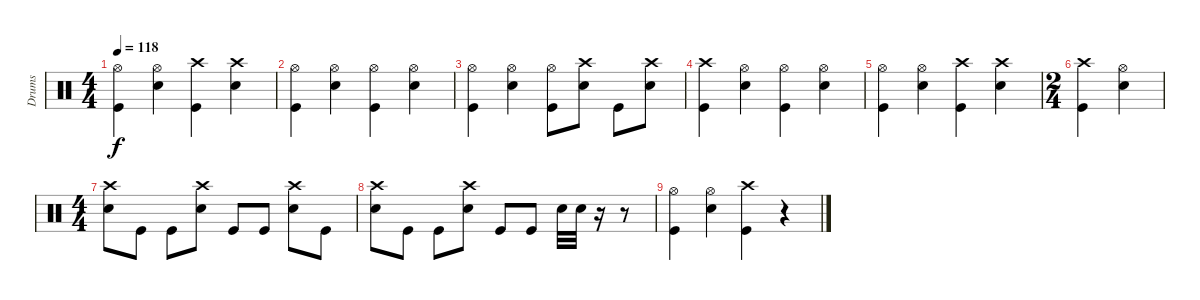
\track ("Drums" "Drums") {instrument percussion}
\staff {score}
\articulation defaults
\ts (4 4)
\tempo 118
\clef neutral
\ks c
("Hi-Hat (open)" "Kick (hit)").4{dy f} ("Hi-Hat (open)" "Snare (hit) 2").4 ("Kick (hit)" "Crash high (hit)").4 ("Snare (hit) 2" "Crash high (hit)").4 |
("Hi-Hat (open)" "Kick (hit)").4 ("Hi-Hat (open)" "Snare (hit) 2").4 ("Hi-Hat (open)" "Kick (hit)").4 ("Hi-Hat (open)" "Snare (hit) 2").4 |
("Hi-Hat (open)" "Kick (hit)").4 ("Hi-Hat (open)" "Snare (hit) 2").4 ("Hi-Hat (open)" "Kick (hit)").8 ("Snare (hit) 2" "Crash high (hit)").8 "Kick (hit)".8 ("Snare (hit) 2" "Crash high (hit)").8 |
("Crash high (hit)" "Kick (hit)").4 ("Hi-Hat (open)" "Snare (hit) 2").4 ("Hi-Hat (open)" "Kick (hit)").4 ("Hi-Hat (open)" "Snare (hit) 2").4 |
("Hi-Hat (open)" "Kick (hit)").4 ("Hi-Hat (open)" "Snare (hit) 2").4 ("Kick (hit)" "Crash high (hit)").4 ("Snare (hit) 2" "Crash high (hit)").4 |
\ts (2 4)
("Crash high (hit)" "Kick (hit)").4 ("Hi-Hat (open)" "Snare (hit) 2").4 |
\ts (4 4)
("Crash high (hit)" "Snare (hit) 2").8 "Kick (hit)".8 "Kick (hit)".8 ("Crash high (hit)" "Snare (hit) 2").8 "Kick (hit)".8 "Kick (hit)".8 ("Crash high (hit)" "Snare (hit) 2").8 "Kick (hit)".8 |
("Crash high (hit)" "Snare (hit) 2").8 "Kick (hit)".8 "Kick (hit)".8 ("Crash high (hit)" "Snare (hit) 2").8 "Kick (hit)".8 "Kick (hit)".8 "Snare (hit) 2".32 "Snare (hit) 2".32 r.16 r.8 |
("Hi-Hat (open)" "Kick (hit)").4 ("Hi-Hat (open)" "Snare (hit) 2").4 ("Crash high (hit)" "Kick (hit)").4 r.4
